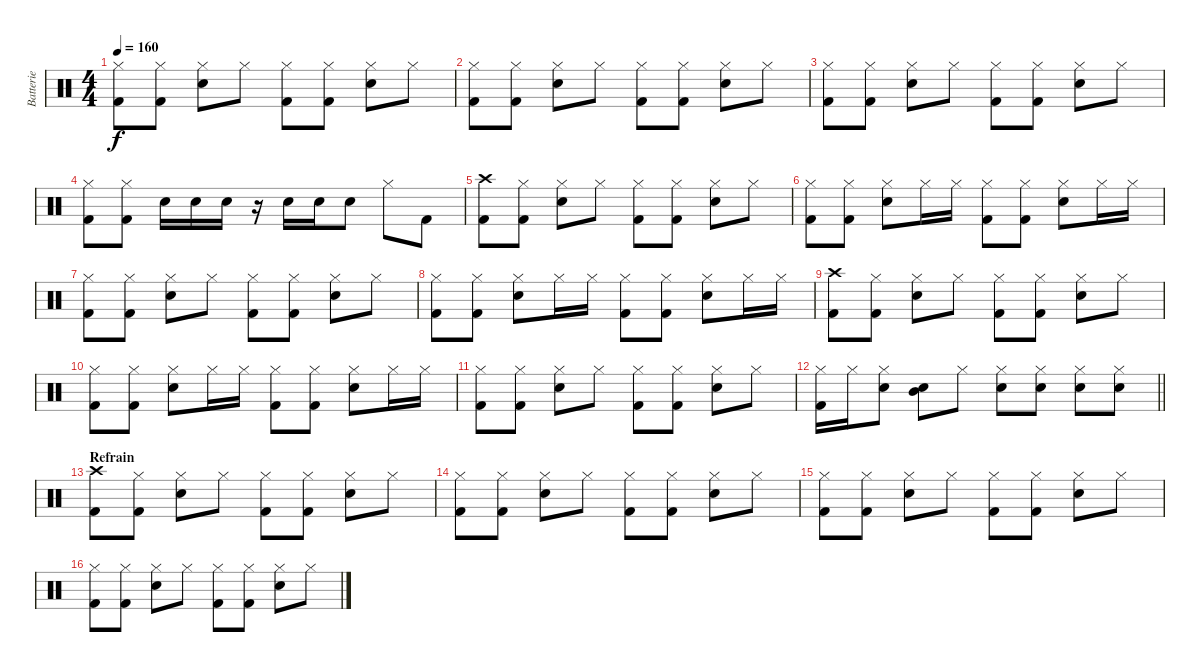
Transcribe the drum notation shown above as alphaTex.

\track ("Batterie" "Batterie") {instrument percussion}
\staff {score}
\articulation defaults
\ts (4 4)
\tempo 160
\clef neutral
\ks c
("Hi-Hat (closed)" "Kick (hit) 2").8{dy f} ("Hi-Hat (closed)" "Kick (hit) 2").8 ("Hi-Hat (closed)" "Electric Snare (hit)").8 "Hi-Hat (closed)".8 ("Hi-Hat (closed)" "Kick (hit) 2").8 ("Hi-Hat (closed)" "Kick (hit) 2").8 ("Hi-Hat (closed)" "Electric Snare (hit)").8 "Hi-Hat (closed)".8 |
("Hi-Hat (closed)" "Kick (hit) 2").8 ("Hi-Hat (closed)" "Kick (hit) 2").8 ("Hi-Hat (closed)" "Electric Snare (hit)").8 "Hi-Hat (closed)".8 ("Hi-Hat (closed)" "Kick (hit) 2").8 ("Hi-Hat (closed)" "Kick (hit) 2").8 ("Hi-Hat (closed)" "Electric Snare (hit)").8 "Hi-Hat (closed)".8 |
("Hi-Hat (closed)" "Kick (hit) 2").8 ("Hi-Hat (closed)" "Kick (hit) 2").8 ("Hi-Hat (closed)" "Electric Snare (hit)").8 "Hi-Hat (closed)".8 ("Hi-Hat (closed)" "Kick (hit) 2").8 ("Hi-Hat (closed)" "Kick (hit) 2").8 ("Hi-Hat (closed)" "Electric Snare (hit)").8 "Hi-Hat (closed)".8 |
("Hi-Hat (closed)" "Kick (hit) 2").8 ("Hi-Hat (closed)" "Kick (hit) 2").8 "Electric Snare (hit)".16 "Electric Snare (hit)".16 "Electric Snare (hit)".16 r.16 "Electric Snare (hit)".16 "Electric Snare (hit)".16 "Electric Snare (hit)".8 "Hi-Hat (closed)".8 "Kick (hit) 2".8 |
("Crash high (hit)" "Kick (hit) 2").8 ("Hi-Hat (closed)" "Kick (hit) 2").8 ("Hi-Hat (closed)" "Electric Snare (hit)").8 "Hi-Hat (closed)".8 ("Hi-Hat (closed)" "Kick (hit) 2").8 ("Hi-Hat (closed)" "Kick (hit) 2").8 ("Hi-Hat (closed)" "Electric Snare (hit)").8 "Hi-Hat (closed)".8 |
("Hi-Hat (closed)" "Kick (hit) 2").8 ("Hi-Hat (closed)" "Kick (hit) 2").8 ("Hi-Hat (closed)" "Electric Snare (hit)").8 "Hi-Hat (closed)".16 "Hi-Hat (closed)".16 ("Hi-Hat (closed)" "Kick (hit) 2").8 ("Hi-Hat (closed)" "Kick (hit) 2").8 ("Hi-Hat (closed)" "Electric Snare (hit)").8 "Hi-Hat (closed)".16 "Hi-Hat (closed)".16 |
("Hi-Hat (closed)" "Kick (hit) 2").8 ("Hi-Hat (closed)" "Kick (hit) 2").8 ("Hi-Hat (closed)" "Electric Snare (hit)").8 "Hi-Hat (closed)".8 ("Hi-Hat (closed)" "Kick (hit) 2").8 ("Hi-Hat (closed)" "Kick (hit) 2").8 ("Hi-Hat (closed)" "Electric Snare (hit)").8 "Hi-Hat (closed)".8 |
("Hi-Hat (closed)" "Kick (hit) 2").8 ("Hi-Hat (closed)" "Kick (hit) 2").8 ("Hi-Hat (closed)" "Electric Snare (hit)").8 "Hi-Hat (closed)".16 "Hi-Hat (closed)".16 ("Hi-Hat (closed)" "Kick (hit) 2").8 ("Hi-Hat (closed)" "Kick (hit) 2").8 ("Hi-Hat (closed)" "Electric Snare (hit)").8 "Hi-Hat (closed)".16 "Hi-Hat (closed)".16 |
("Crash high (hit)" "Kick (hit) 2").8 ("Hi-Hat (closed)" "Kick (hit) 2").8 ("Hi-Hat (closed)" "Electric Snare (hit)").8 "Hi-Hat (closed)".8 ("Hi-Hat (closed)" "Kick (hit) 2").8 ("Hi-Hat (closed)" "Kick (hit) 2").8 ("Hi-Hat (closed)" "Electric Snare (hit)").8 "Hi-Hat (closed)".8 |
("Hi-Hat (closed)" "Kick (hit) 2").8 ("Hi-Hat (closed)" "Kick (hit) 2").8 ("Hi-Hat (closed)" "Electric Snare (hit)").8 "Hi-Hat (closed)".16 "Hi-Hat (closed)".16 ("Hi-Hat (closed)" "Kick (hit) 2").8 ("Hi-Hat (closed)" "Kick (hit) 2").8 ("Hi-Hat (closed)" "Electric Snare (hit)").8 "Hi-Hat (closed)".16 "Hi-Hat (closed)".16 |
("Hi-Hat (closed)" "Kick (hit) 2").8 ("Hi-Hat (closed)" "Kick (hit) 2").8 ("Hi-Hat (closed)" "Electric Snare (hit)").8 "Hi-Hat (closed)".8 ("Hi-Hat (closed)" "Kick (hit) 2").8 ("Hi-Hat (closed)" "Kick (hit) 2").8 ("Hi-Hat (closed)" "Electric Snare (hit)").8 "Hi-Hat (closed)".8 |
\barLineRight lightlight
("Hi-Hat (closed)" "Kick (hit) 2").16 "Hi-Hat (closed)".16 ("Hi-Hat (closed)" "Electric Snare (hit)").8 ("Mid Tom (hit)" "Electric Snare (hit)").8 "Hi-Hat (closed)".8 ("Hi-Hat (closed)" "Electric Snare (hit)").8 ("Hi-Hat (closed)" "Electric Snare (hit)").8 ("Hi-Hat (closed)" "Electric Snare (hit)").8 ("Hi-Hat (closed)" "Electric Snare (hit)").8 |
\section ("" "Refrain")
("Crash high (hit)" "Kick (hit) 2").8 ("Hi-Hat (closed)" "Kick (hit) 2").8 ("Hi-Hat (closed)" "Electric Snare (hit)").8 "Hi-Hat (closed)".8 ("Hi-Hat (closed)" "Kick (hit) 2").8 ("Hi-Hat (closed)" "Kick (hit) 2").8 ("Hi-Hat (closed)" "Electric Snare (hit)").8 "Hi-Hat (closed)".8 |
("Hi-Hat (closed)" "Kick (hit) 2").8 ("Hi-Hat (closed)" "Kick (hit) 2").8 ("Hi-Hat (closed)" "Electric Snare (hit)").8 "Hi-Hat (closed)".8 ("Hi-Hat (closed)" "Kick (hit) 2").8 ("Hi-Hat (closed)" "Kick (hit) 2").8 ("Hi-Hat (closed)" "Electric Snare (hit)").8 "Hi-Hat (closed)".8 |
("Hi-Hat (closed)" "Kick (hit) 2").8 ("Hi-Hat (closed)" "Kick (hit) 2").8 ("Hi-Hat (closed)" "Electric Snare (hit)").8 "Hi-Hat (closed)".8 ("Hi-Hat (closed)" "Kick (hit) 2").8 ("Hi-Hat (closed)" "Kick (hit) 2").8 ("Hi-Hat (closed)" "Electric Snare (hit)").8 "Hi-Hat (closed)".8 |
("Hi-Hat (closed)" "Kick (hit) 2").8 ("Hi-Hat (closed)" "Kick (hit) 2").8 ("Hi-Hat (closed)" "Electric Snare (hit)").8 "Hi-Hat (closed)".8 ("Hi-Hat (closed)" "Kick (hit) 2").8 ("Hi-Hat (closed)" "Kick (hit) 2").8 ("Hi-Hat (closed)" "Electric Snare (hit)").8 "Hi-Hat (closed)".8
